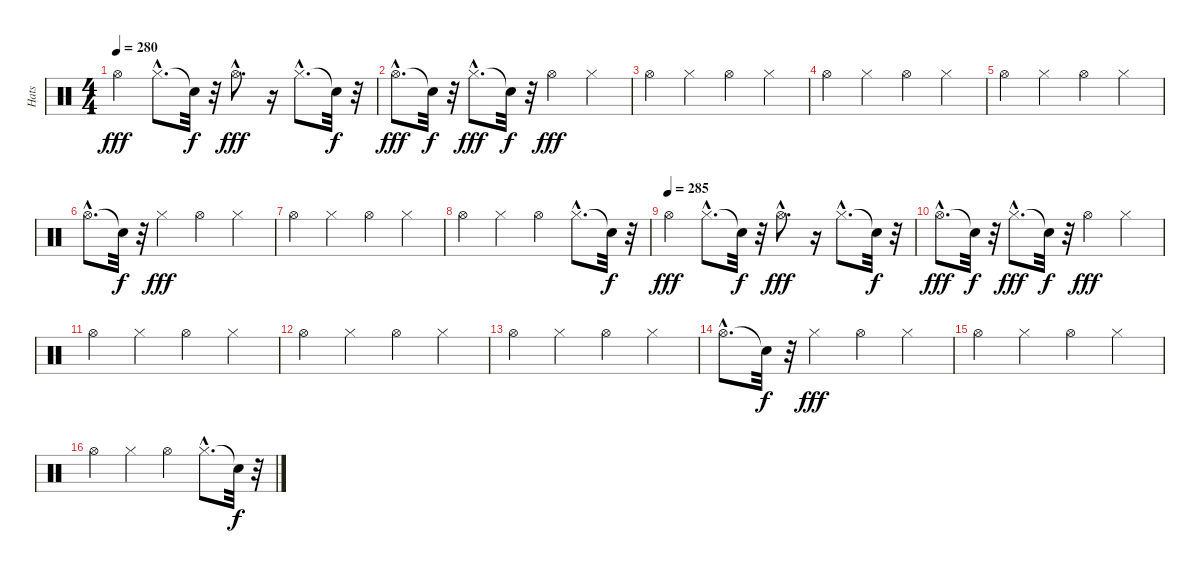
\track ("Hats" "Hats") {instrument percussion}
\staff {score}
\articulation defaults
\ts (4 4)
\tempo 280
\clef neutral
\ks c "Hi-Hat (open)".4{dy fff} "Hi-Hat (closed)"{hac}.8{d} "Snare (hit)"{t}.32{dy f}
r.32 "Hi-Hat (open)"{hac}.8{d dy fff} r.16 "Hi-Hat (closed)"{hac}.8{d} "Snare (hit)"{t}.32{dy f} r.32 |
"Hi-Hat (open)"{hac}.8{d dy fff} "Snare (hit)"{t}.32{dy f} r.32 "Hi-Hat (closed)"{hac}.8{d dy fff} "Snare (hit)"{t}.32{dy f} r.32 "Hi-Hat (open)".4{dy fff} "Hi-Hat (closed)".4 |
"Hi-Hat (open)".4 "Hi-Hat (closed)".4 "Hi-Hat (open)".4 "Hi-Hat (closed)".4 |
"Hi-Hat (open)".4 "Hi-Hat (closed)".4 "Hi-Hat (open)".4 "Hi-Hat (closed)".4 |
"Hi-Hat (open)".4 "Hi-Hat (closed)".4 "Hi-Hat (open)".4 "Hi-Hat (closed)".4 |
"Hi-Hat (open)"{hac}.8{d} "Snare (hit)"{t}.32{dy f} r.32 "Hi-Hat (closed)".4{dy fff} "Hi-Hat (open)".4 "Hi-Hat (closed)".4 |
"Hi-Hat (open)".4 "Hi-Hat (closed)".4 "Hi-Hat (open)".4 "Hi-Hat (closed)".4 |
"Hi-Hat (open)".4 "Hi-Hat (closed)".4 "Hi-Hat (open)".4 "Hi-Hat (closed)"{hac}.8{d} "Snare (hit)"{t}.32{dy f} r.32 |
\tempo (285)
"Hi-Hat (open)".4{dy fff} "Hi-Hat (closed)"{hac}.8{d} "Snare (hit)"{t}.32{dy f} r.32 "Hi-Hat (open)"{hac}.8{d dy fff} r.16 "Hi-Hat (closed)"{hac}.8{d} "Snare (hit)"{t}.32{dy f} r.32 |
"Hi-Hat (open)"{hac}.8{d dy fff} "Snare (hit)"{t}.32{dy f} r.32 "Hi-Hat (closed)"{hac}.8{d dy fff} "Snare (hit)"{t}.32{dy f} r.32 "Hi-Hat (open)".4{dy fff} "Hi-Hat (closed)".4 |
"Hi-Hat (open)".4 "Hi-Hat (closed)".4 "Hi-Hat (open)".4 "Hi-Hat (closed)".4 |
"Hi-Hat (open)".4 "Hi-Hat (closed)".4 "Hi-Hat (open)".4 "Hi-Hat (closed)".4 |
"Hi-Hat (open)".4 "Hi-Hat (closed)".4 "Hi-Hat (open)".4 "Hi-Hat (closed)".4 |
"Hi-Hat (open)"{hac}.8{d} "Snare (hit)"{t}.32{dy f} r.32 "Hi-Hat (closed)".4{dy fff} "Hi-Hat (open)".4 "Hi-Hat (closed)".4 |
"Hi-Hat (open)".4 "Hi-Hat (closed)".4 "Hi-Hat (open)".4 "Hi-Hat (closed)".4 |
"Hi-Hat (open)".4 "Hi-Hat (closed)".4 "Hi-Hat (open)".4 "Hi-Hat (closed)"{hac}.8{d} "Snare (hit)"{t}.32{dy f} r.32
